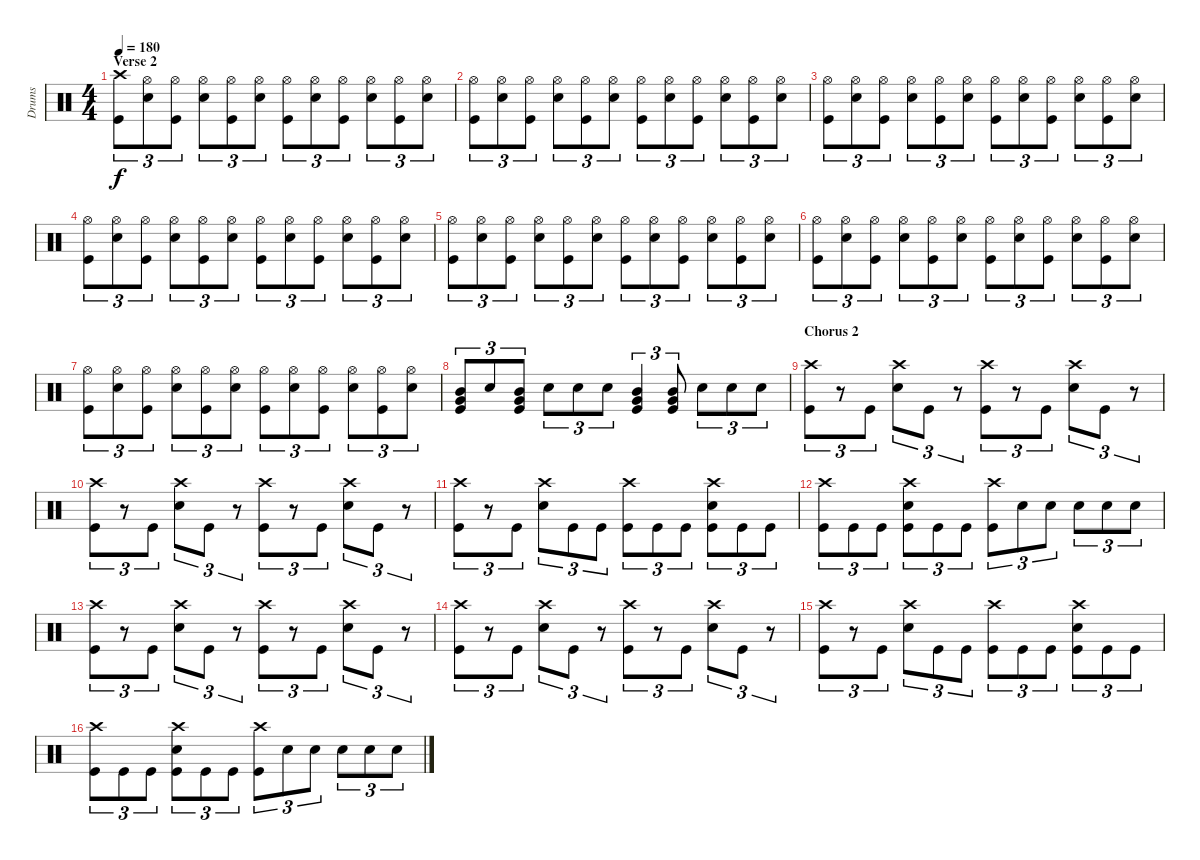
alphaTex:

\track ("Drums" "Drums") {instrument percussion}
\staff {score}
\articulation defaults
\ts (4 4)
\section ("" "Verse 2")
\tempo 180
\clef neutral
\ks c
("Crash high (hit)" "Kick (hit)").8{tu (3 2) dy f} ("Hi-Hat (open)" "Snare (hit) 2").8{tu (3 2)} ("Hi-Hat (open)" "Kick (hit)").8{tu (3 2)} ("Hi-Hat (open)" "Snare (hit) 2").8{tu (3 2)} ("Hi-Hat (open)" "Kick (hit)").8{tu (3 2)} ("Hi-Hat (open)" "Snare (hit) 2").8{tu (3 2)} ("Hi-Hat (open)" "Kick (hit)").8{tu (3 2)} ("Hi-Hat (open)" "Snare (hit) 2").8{tu (3 2)} ("Hi-Hat (open)" "Kick (hit)").8{tu (3 2)} ("Hi-Hat (open)" "Snare (hit) 2").8{tu (3 2)} ("Hi-Hat (open)" "Kick (hit)").8{tu (3 2)} ("Hi-Hat (open)" "Snare (hit) 2").8{tu (3 2)} |
("Hi-Hat (open)" "Kick (hit)").8{tu (3 2)} ("Hi-Hat (open)" "Snare (hit) 2").8{tu (3 2)} ("Hi-Hat (open)" "Kick (hit)").8{tu (3 2)} ("Hi-Hat (open)" "Snare (hit) 2").8{tu (3 2)} ("Hi-Hat (open)" "Kick (hit)").8{tu (3 2)} ("Hi-Hat (open)" "Snare (hit) 2").8{tu (3 2)} ("Hi-Hat (open)" "Kick (hit)").8{tu (3 2)} ("Hi-Hat (open)" "Snare (hit) 2").8{tu (3 2)} ("Hi-Hat (open)" "Kick (hit)").8{tu (3 2)} ("Hi-Hat (open)" "Snare (hit) 2").8{tu (3 2)} ("Hi-Hat (open)" "Kick (hit)").8{tu (3 2)} ("Hi-Hat (open)" "Snare (hit) 2").8{tu (3 2)} |
("Hi-Hat (open)" "Kick (hit)").8{tu (3 2)} ("Hi-Hat (open)" "Snare (hit) 2").8{tu (3 2)} ("Hi-Hat (open)" "Kick (hit)").8{tu (3 2)} ("Hi-Hat (open)" "Snare (hit) 2").8{tu (3 2)} ("Hi-Hat (open)" "Kick (hit)").8{tu (3 2)} ("Hi-Hat (open)" "Snare (hit) 2").8{tu (3 2)} ("Hi-Hat (open)" "Kick (hit)").8{tu (3 2)} ("Hi-Hat (open)" "Snare (hit) 2").8{tu (3 2)} ("Hi-Hat (open)" "Kick (hit)").8{tu (3 2)} ("Hi-Hat (open)" "Snare (hit) 2").8{tu (3 2)} ("Hi-Hat (open)" "Kick (hit)").8{tu (3 2)} ("Hi-Hat (open)" "Snare (hit) 2").8{tu (3 2)} |
("Hi-Hat (open)" "Kick (hit)").8{tu (3 2)} ("Hi-Hat (open)" "Snare (hit) 2").8{tu (3 2)} ("Hi-Hat (open)" "Kick (hit)").8{tu (3 2)} ("Hi-Hat (open)" "Snare (hit) 2").8{tu (3 2)} ("Hi-Hat (open)" "Kick (hit)").8{tu (3 2)} ("Hi-Hat (open)" "Snare (hit) 2").8{tu (3 2)} ("Hi-Hat (open)" "Kick (hit)").8{tu (3 2)} ("Hi-Hat (open)" "Snare (hit) 2").8{tu (3 2)} ("Hi-Hat (open)" "Kick (hit)").8{tu (3 2)} ("Hi-Hat (open)" "Snare (hit) 2").8{tu (3 2)} ("Hi-Hat (open)" "Kick (hit)").8{tu (3 2)} ("Hi-Hat (open)" "Snare (hit) 2").8{tu (3 2)} |
("Hi-Hat (open)" "Kick (hit)").8{tu (3 2)} ("Hi-Hat (open)" "Snare (hit) 2").8{tu (3 2)} ("Hi-Hat (open)" "Kick (hit)").8{tu (3 2)} ("Hi-Hat (open)" "Snare (hit) 2").8{tu (3 2)} ("Hi-Hat (open)" "Kick (hit)").8{tu (3 2)} ("Hi-Hat (open)" "Snare (hit) 2").8{tu (3 2)} ("Hi-Hat (open)" "Kick (hit)").8{tu (3 2)} ("Hi-Hat (open)" "Snare (hit) 2").8{tu (3 2)} ("Hi-Hat (open)" "Kick (hit)").8{tu (3 2)} ("Hi-Hat (open)" "Snare (hit) 2").8{tu (3 2)} ("Hi-Hat (open)" "Kick (hit)").8{tu (3 2)} ("Hi-Hat (open)" "Snare (hit) 2").8{tu (3 2)} |
("Hi-Hat (open)" "Kick (hit)").8{tu (3 2)} ("Hi-Hat (open)" "Snare (hit) 2").8{tu (3 2)} ("Hi-Hat (open)" "Kick (hit)").8{tu (3 2)} ("Hi-Hat (open)" "Snare (hit) 2").8{tu (3 2)} ("Hi-Hat (open)" "Kick (hit)").8{tu (3 2)} ("Hi-Hat (open)" "Snare (hit) 2").8{tu (3 2)} ("Hi-Hat (open)" "Kick (hit)").8{tu (3 2)} ("Hi-Hat (open)" "Snare (hit) 2").8{tu (3 2)} ("Hi-Hat (open)" "Kick (hit)").8{tu (3 2)} ("Hi-Hat (open)" "Snare (hit) 2").8{tu (3 2)} ("Hi-Hat (open)" "Kick (hit)").8{tu (3 2)} ("Hi-Hat (open)" "Snare (hit) 2").8{tu (3 2)} |
("Hi-Hat (open)" "Kick (hit)").8{tu (3 2)} ("Hi-Hat (open)" "Snare (hit) 2").8{tu (3 2)} ("Hi-Hat (open)" "Kick (hit)").8{tu (3 2)} ("Hi-Hat (open)" "Snare (hit) 2").8{tu (3 2)} ("Hi-Hat (open)" "Kick (hit)").8{tu (3 2)} ("Hi-Hat (open)" "Snare (hit) 2").8{tu (3 2)} ("Hi-Hat (open)" "Kick (hit)").8{tu (3 2)} ("Hi-Hat (open)" "Snare (hit) 2").8{tu (3 2)} ("Hi-Hat (open)" "Kick (hit)").8{tu (3 2)} ("Hi-Hat (open)" "Snare (hit) 2").8{tu (3 2)} ("Hi-Hat (open)" "Kick (hit)").8{tu (3 2)} ("Hi-Hat (open)" "Snare (hit) 2").8{tu (3 2)} |
("Mid Tom (hit)" "Very Low Tom (hit)" "Kick (hit)").8{tu (3 2)} "Snare (hit) 2".8{tu (3 2)} ("Mid Tom (hit)" "Very Low Tom (hit)" "Kick (hit)").8{tu (3 2)} "Snare (hit) 2".8{tu (3 2)} "Snare (hit) 2".8{tu (3 2)} "Snare (hit) 2".8{tu (3 2)} ("Mid Tom (hit)" "Very Low Tom (hit)" "Kick (hit)").4{tu (3 2)} ("Mid Tom (hit)" "Very Low Tom (hit)" "Kick (hit)").8{tu (3 2)} "Snare (hit) 2".8{tu (3 2)} "Snare (hit) 2".8{tu (3 2)} "Snare (hit) 2".8{tu (3 2)} |
\section ("" "Chorus 2")
("Crash high (hit)" "Kick (hit)").8{tu (3 2)} r.8{tu (3 2)} "Kick (hit)".8{tu (3 2)} ("Crash high (hit)" "Snare (hit) 2").8{tu (3 2)} "Kick (hit)".8{tu (3 2)} r.8{tu (3 2)} ("Crash high (hit)" "Kick (hit)").8{tu (3 2)} r.8{tu (3 2)} "Kick (hit)".8{tu (3 2)} ("Crash high (hit)" "Snare (hit) 2").8{tu (3 2)} "Kick (hit)".8{tu (3 2)} r.8{tu (3 2)} |
("Crash high (hit)" "Kick (hit)").8{tu (3 2)} r.8{tu (3 2)} "Kick (hit)".8{tu (3 2)} ("Crash high (hit)" "Snare (hit) 2").8{tu (3 2)} "Kick (hit)".8{tu (3 2)} r.8{tu (3 2)} ("Crash high (hit)" "Kick (hit)").8{tu (3 2)} r.8{tu (3 2)} "Kick (hit)".8{tu (3 2)} ("Crash high (hit)" "Snare (hit) 2").8{tu (3 2)} "Kick (hit)".8{tu (3 2)} r.8{tu (3 2)} |
("Crash high (hit)" "Kick (hit)").8{tu (3 2)} r.8{tu (3 2)} "Kick (hit)".8{tu (3 2)} ("Crash high (hit)" "Snare (hit) 2").8{tu (3 2)} "Kick (hit)".8{tu (3 2)} "Kick (hit)".8{tu (3 2)} ("Crash high (hit)" "Kick (hit)").8{tu (3 2)} "Kick (hit)".8{tu (3 2)} "Kick (hit)".8{tu (3 2)} ("Crash high (hit)" "Snare (hit) 2" "Kick (hit)").8{tu (3 2)} "Kick (hit)".8{tu (3 2)} "Kick (hit)".8{tu (3 2)} |
("Crash high (hit)" "Kick (hit)").8{tu (3 2)} "Kick (hit)".8{tu (3 2)} "Kick (hit)".8{tu (3 2)} ("Crash high (hit)" "Snare (hit) 2" "Kick (hit)").8{tu (3 2)} "Kick (hit)".8{tu (3 2)} "Kick (hit)".8{tu (3 2)} ("Crash high (hit)" "Kick (hit)").8{tu (3 2)} "Snare (hit) 2".8{tu (3 2)} "Snare (hit) 2".8{tu (3 2)} "Snare (hit) 2".8{tu (3 2)} "Snare (hit) 2".8{tu (3 2)} "Snare (hit) 2".8{tu (3 2)} |
("Crash high (hit)" "Kick (hit)").8{tu (3 2)} r.8{tu (3 2)} "Kick (hit)".8{tu (3 2)} ("Crash high (hit)" "Snare (hit) 2").8{tu (3 2)} "Kick (hit)".8{tu (3 2)} r.8{tu (3 2)} ("Crash high (hit)" "Kick (hit)").8{tu (3 2)} r.8{tu (3 2)} "Kick (hit)".8{tu (3 2)} ("Crash high (hit)" "Snare (hit) 2").8{tu (3 2)} "Kick (hit)".8{tu (3 2)} r.8{tu (3 2)} |
("Crash high (hit)" "Kick (hit)").8{tu (3 2)} r.8{tu (3 2)} "Kick (hit)".8{tu (3 2)} ("Crash high (hit)" "Snare (hit) 2").8{tu (3 2)} "Kick (hit)".8{tu (3 2)} r.8{tu (3 2)} ("Crash high (hit)" "Kick (hit)").8{tu (3 2)} r.8{tu (3 2)} "Kick (hit)".8{tu (3 2)} ("Crash high (hit)" "Snare (hit) 2").8{tu (3 2)} "Kick (hit)".8{tu (3 2)} r.8{tu (3 2)} |
("Crash high (hit)" "Kick (hit)").8{tu (3 2)} r.8{tu (3 2)} "Kick (hit)".8{tu (3 2)} ("Crash high (hit)" "Snare (hit) 2").8{tu (3 2)} "Kick (hit)".8{tu (3 2)} "Kick (hit)".8{tu (3 2)} ("Crash high (hit)" "Kick (hit)").8{tu (3 2)} "Kick (hit)".8{tu (3 2)} "Kick (hit)".8{tu (3 2)} ("Crash high (hit)" "Snare (hit) 2" "Kick (hit)").8{tu (3 2)} "Kick (hit)".8{tu (3 2)} "Kick (hit)".8{tu (3 2)} |
("Crash high (hit)" "Kick (hit)").8{tu (3 2)} "Kick (hit)".8{tu (3 2)} "Kick (hit)".8{tu (3 2)} ("Crash high (hit)" "Snare (hit) 2" "Kick (hit)").8{tu (3 2)} "Kick (hit)".8{tu (3 2)} "Kick (hit)".8{tu (3 2)} ("Crash high (hit)" "Kick (hit)").8{tu (3 2)} "Snare (hit) 2".8{tu (3 2)} "Snare (hit) 2".8{tu (3 2)} "Snare (hit) 2".8{tu (3 2)} "Snare (hit) 2".8{tu (3 2)} "Snare (hit) 2".8{tu (3 2)}
